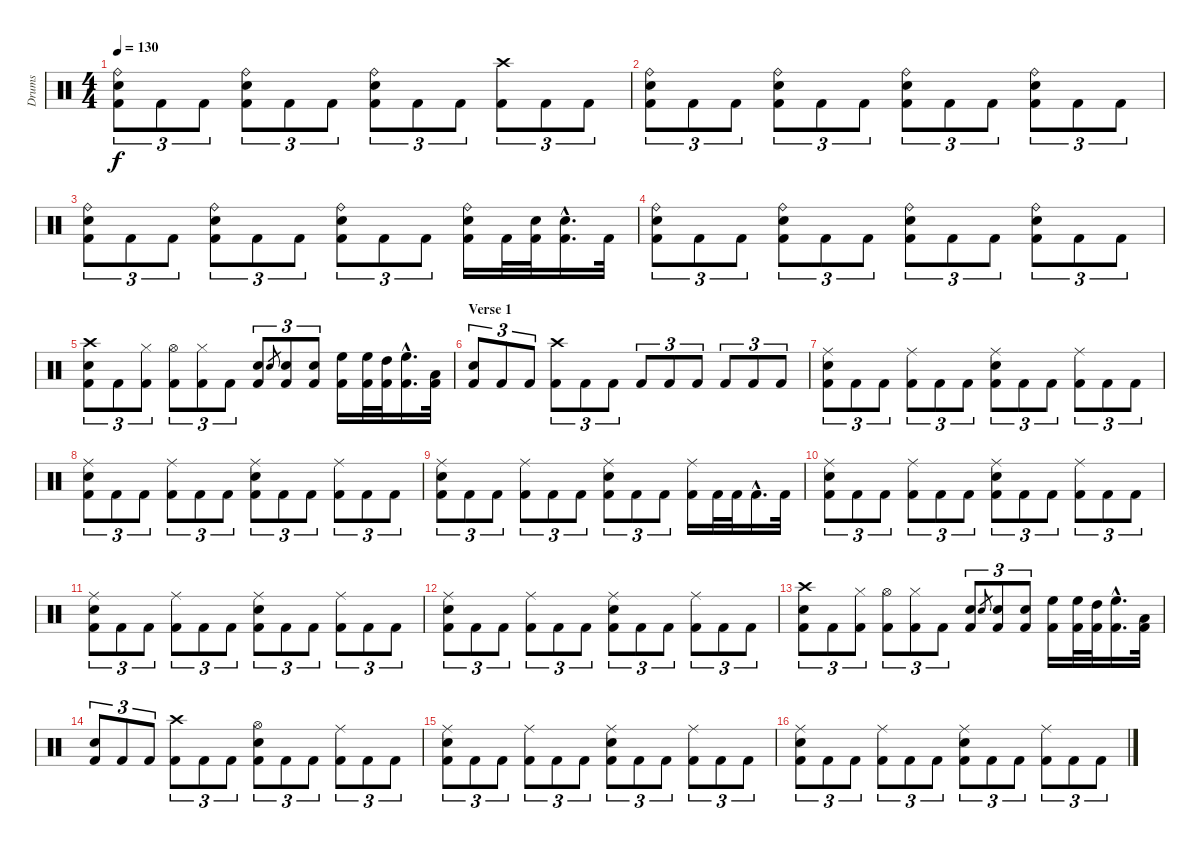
\track ("Drums" "Drums") {instrument percussion}
\staff {score}
\articulation defaults
\ts (4 4)
\tempo 130
\clef neutral
\ks c
("Ride (bell)" "Snare (hit) 2" "Kick (hit) 2").8{tu (3 2) dy f} "Kick (hit) 2".8{tu (3 2)} "Kick (hit) 2".8{tu (3 2)} ("Ride (bell)" "Snare (hit) 2" "Kick (hit) 2").8{tu (3 2)} "Kick (hit) 2".8{tu (3 2)} "Kick (hit) 2".8{tu (3 2)} ("Ride (bell)" "Snare (hit) 2" "Kick (hit) 2").8{tu (3 2)} "Kick (hit) 2".8{tu (3 2)} "Kick (hit) 2".8{tu (3 2)} ("Crash high (hit)" "Kick (hit) 2").8{tu (3 2)} "Kick (hit) 2".8{tu (3 2)} "Kick (hit) 2".8{tu (3 2)} |
("Ride (bell)" "Snare (hit) 2" "Kick (hit) 2").8{tu (3 2)} "Kick (hit) 2".8{tu (3 2)} "Kick (hit) 2".8{tu (3 2)} ("Ride (bell)" "Snare (hit) 2" "Kick (hit) 2").8{tu (3 2)} "Kick (hit) 2".8{tu (3 2)} "Kick (hit) 2".8{tu (3 2)} ("Ride (bell)" "Snare (hit) 2" "Kick (hit) 2").8{tu (3 2)} "Kick (hit) 2".8{tu (3 2)} "Kick (hit) 2".8{tu (3 2)} ("Ride (bell)" "Snare (hit) 2" "Kick (hit) 2").8{tu (3 2)} "Kick (hit) 2".8{tu (3 2)} "Kick (hit) 2".8{tu (3 2)} |
("Ride (bell)" "Snare (hit) 2" "Kick (hit) 2").8{tu (3 2)} "Kick (hit) 2".8{tu (3 2)} "Kick (hit) 2".8{tu (3 2)} ("Ride (bell)" "Snare (hit) 2" "Kick (hit) 2").8{tu (3 2)} "Kick (hit) 2".8{tu (3 2)} "Kick (hit) 2".8{tu (3 2)} ("Ride (bell)" "Snare (hit) 2" "Kick (hit) 2").8{tu (3 2)} "Kick (hit) 2".8{tu (3 2)} "Kick (hit) 2".8{tu (3 2)} ("Ride (bell)" "Snare (hit) 2" "Kick (hit) 2").16 "Kick (hit) 2".32 ("Snare (hit) 2" "Kick (hit) 2").32 ("Snare (hit) 2"{hac} "Kick (hit) 2"{hac}).16{d} "Kick (hit) 2".32 |
("Ride (bell)" "Snare (hit) 2" "Kick (hit) 2").8{tu (3 2)} "Kick (hit) 2".8{tu (3 2)} "Kick (hit) 2".8{tu (3 2)} ("Ride (bell)" "Snare (hit) 2" "Kick (hit) 2").8{tu (3 2)} "Kick (hit) 2".8{tu (3 2)} "Kick (hit) 2".8{tu (3 2)} ("Ride (bell)" "Snare (hit) 2" "Kick (hit) 2").8{tu (3 2)} "Kick (hit) 2".8{tu (3 2)} "Kick (hit) 2".8{tu (3 2)} ("Ride (bell)" "Snare (hit) 2" "Kick (hit) 2").8{tu (3 2)} "Kick (hit) 2".8{tu (3 2)} "Kick (hit) 2".8{tu (3 2)} |
("Crash high (hit)" "Snare (hit) 2" "Kick (hit) 2").8{tu (3 2)} "Kick (hit) 2".8{tu (3 2)} ("Hi-Hat (closed)" "Kick (hit) 2").8{tu (3 2)} ("Hi-Hat (open)" "Kick (hit) 2").8{tu (3 2)} ("Hi-Hat (closed)" "Kick (hit) 2").8{tu (3 2)} "Kick (hit) 2".8{tu (3 2)} ("Snare (hit) 2" "Kick (hit) 2").8{tu (3 2)} "Snare (hit) 2".8{gr} ("Snare (hit) 2" "Kick (hit) 2").8{tu (3 2)} ("Snare (hit) 2" "Kick (hit) 2").8{tu (3 2)} ("High Floor Tom (hit)" "Kick (hit) 2").16 ("High Floor Tom (hit)" "Kick (hit) 2").32 ("High Tom (hit)" "Kick (hit) 2").32 ("High Floor Tom (hit)"{hac} "Kick (hit) 2"{hac}).16{d} ("Low Tom (hit)" "Kick (hit) 2").32 |
\section ("" "Verse 1")
("Snare (hit) 2" "Kick (hit) 2").8{tu (3 2)} "Kick (hit) 2".8{tu (3 2)} "Kick (hit) 2".8{tu (3 2)} ("Crash high (hit)" "Kick (hit) 2").8{tu (3 2)} "Kick (hit) 2".8{tu (3 2)} "Kick (hit) 2".8{tu (3 2)} "Kick (hit) 2".8{tu (3 2)} "Kick (hit) 2".8{tu (3 2)} "Kick (hit) 2".8{tu (3 2)} "Kick (hit) 2".8{tu (3 2)} "Kick (hit) 2".8{tu (3 2)} "Kick (hit) 2".8{tu (3 2)} |
("Ride (middle)" "Snare (hit) 2" "Kick (hit) 2").8{tu (3 2)} "Kick (hit) 2".8{tu (3 2)} "Kick (hit) 2".8{tu (3 2)} ("Ride (middle)" "Kick (hit) 2").8{tu (3 2)} "Kick (hit) 2".8{tu (3 2)} "Kick (hit) 2".8{tu (3 2)} ("Ride (middle)" "Snare (hit) 2" "Kick (hit) 2").8{tu (3 2)} "Kick (hit) 2".8{tu (3 2)} "Kick (hit) 2".8{tu (3 2)} ("Ride (middle)" "Kick (hit) 2").8{tu (3 2)} "Kick (hit) 2".8{tu (3 2)} "Kick (hit) 2".8{tu (3 2)} |
("Ride (middle)" "Snare (hit) 2" "Kick (hit) 2").8{tu (3 2)} "Kick (hit) 2".8{tu (3 2)} "Kick (hit) 2".8{tu (3 2)} ("Ride (middle)" "Kick (hit) 2").8{tu (3 2)} "Kick (hit) 2".8{tu (3 2)} "Kick (hit) 2".8{tu (3 2)} ("Ride (middle)" "Snare (hit) 2" "Kick (hit) 2").8{tu (3 2)} "Kick (hit) 2".8{tu (3 2)} "Kick (hit) 2".8{tu (3 2)} ("Ride (middle)" "Kick (hit) 2").8{tu (3 2)} "Kick (hit) 2".8{tu (3 2)} "Kick (hit) 2".8{tu (3 2)} |
("Ride (middle)" "Snare (hit) 2" "Kick (hit) 2").8{tu (3 2)} "Kick (hit) 2".8{tu (3 2)} "Kick (hit) 2".8{tu (3 2)} ("Ride (middle)" "Kick (hit) 2").8{tu (3 2)} "Kick (hit) 2".8{tu (3 2)} "Kick (hit) 2".8{tu (3 2)} ("Ride (middle)" "Snare (hit) 2" "Kick (hit) 2").8{tu (3 2)} "Kick (hit) 2".8{tu (3 2)} "Kick (hit) 2".8{tu (3 2)} ("Ride (middle)" "Kick (hit) 2").16 "Kick (hit) 2".32 "Kick (hit) 2".32 "Kick (hit) 2"{hac}.16{d} "Kick (hit) 2".32 |
("Ride (middle)" "Snare (hit) 2" "Kick (hit) 2").8{tu (3 2)} "Kick (hit) 2".8{tu (3 2)} "Kick (hit) 2".8{tu (3 2)} ("Ride (middle)" "Kick (hit) 2").8{tu (3 2)} "Kick (hit) 2".8{tu (3 2)} "Kick (hit) 2".8{tu (3 2)} ("Ride (middle)" "Snare (hit) 2" "Kick (hit) 2").8{tu (3 2)} "Kick (hit) 2".8{tu (3 2)} "Kick (hit) 2".8{tu (3 2)} ("Ride (middle)" "Kick (hit) 2").8{tu (3 2)} "Kick (hit) 2".8{tu (3 2)} "Kick (hit) 2".8{tu (3 2)} |
("Ride (middle)" "Snare (hit) 2" "Kick (hit) 2").8{tu (3 2)} "Kick (hit) 2".8{tu (3 2)} "Kick (hit) 2".8{tu (3 2)} ("Ride (middle)" "Kick (hit) 2").8{tu (3 2)} "Kick (hit) 2".8{tu (3 2)} "Kick (hit) 2".8{tu (3 2)} ("Ride (middle)" "Snare (hit) 2" "Kick (hit) 2").8{tu (3 2)} "Kick (hit) 2".8{tu (3 2)} "Kick (hit) 2".8{tu (3 2)} ("Ride (middle)" "Kick (hit) 2").8{tu (3 2)} "Kick (hit) 2".8{tu (3 2)} "Kick (hit) 2".8{tu (3 2)} |
("Ride (middle)" "Snare (hit) 2" "Kick (hit) 2").8{tu (3 2)} "Kick (hit) 2".8{tu (3 2)} "Kick (hit) 2".8{tu (3 2)} ("Ride (middle)" "Kick (hit) 2").8{tu (3 2)} "Kick (hit) 2".8{tu (3 2)} "Kick (hit) 2".8{tu (3 2)} ("Ride (middle)" "Snare (hit) 2" "Kick (hit) 2").8{tu (3 2)} "Kick (hit) 2".8{tu (3 2)} "Kick (hit) 2".8{tu (3 2)} ("Ride (middle)" "Kick (hit) 2").8{tu (3 2)} "Kick (hit) 2".8{tu (3 2)} "Kick (hit) 2".8{tu (3 2)} |
("Crash high (hit)" "Snare (hit) 2" "Kick (hit) 2").8{tu (3 2)} "Kick (hit) 2".8{tu (3 2)} ("Hi-Hat (closed)" "Kick (hit) 2").8{tu (3 2)} ("Hi-Hat (open)" "Kick (hit) 2").8{tu (3 2)} ("Hi-Hat (closed)" "Kick (hit) 2").8{tu (3 2)} "Kick (hit) 2".8{tu (3 2)} ("Snare (hit) 2" "Kick (hit) 2").8{tu (3 2)} "Snare (hit) 2".8{gr} ("Snare (hit) 2" "Kick (hit) 2").8{tu (3 2)} ("Snare (hit) 2" "Kick (hit) 2").8{tu (3 2)} ("High Floor Tom (hit)" "Kick (hit) 2").16 ("High Floor Tom (hit)" "Kick (hit) 2").32 ("High Tom (hit)" "Kick (hit) 2").32 ("High Floor Tom (hit)"{hac} "Kick (hit) 2"{hac}).16{d} ("Low Tom (hit)" "Kick (hit) 2").32 |
("Snare (hit) 2" "Kick (hit) 2").8{tu (3 2)} "Kick (hit) 2".8{tu (3 2)} "Kick (hit) 2".8{tu (3 2)} ("Crash high (hit)" "Kick (hit) 2").8{tu (3 2)} "Kick (hit) 2".8{tu (3 2)} "Kick (hit) 2".8{tu (3 2)} ("Hi-Hat (open)" "Snare (hit) 2" "Kick (hit) 2").8{tu (3 2)} "Kick (hit) 2".8{tu (3 2)} "Kick (hit) 2".8{tu (3 2)} ("Ride (middle)" "Kick (hit) 2").8{tu (3 2)} "Kick (hit) 2".8{tu (3 2)} "Kick (hit) 2".8{tu (3 2)} |
("Ride (middle)" "Snare (hit) 2" "Kick (hit) 2").8{tu (3 2)} "Kick (hit) 2".8{tu (3 2)} "Kick (hit) 2".8{tu (3 2)} ("Ride (middle)" "Kick (hit) 2").8{tu (3 2)} "Kick (hit) 2".8{tu (3 2)} "Kick (hit) 2".8{tu (3 2)} ("Ride (middle)" "Snare (hit) 2" "Kick (hit) 2").8{tu (3 2)} "Kick (hit) 2".8{tu (3 2)} "Kick (hit) 2".8{tu (3 2)} ("Ride (middle)" "Kick (hit) 2").8{tu (3 2)} "Kick (hit) 2".8{tu (3 2)} "Kick (hit) 2".8{tu (3 2)} |
("Ride (middle)" "Snare (hit) 2" "Kick (hit) 2").8{tu (3 2)} "Kick (hit) 2".8{tu (3 2)} "Kick (hit) 2".8{tu (3 2)} ("Ride (middle)" "Kick (hit) 2").8{tu (3 2)} "Kick (hit) 2".8{tu (3 2)} "Kick (hit) 2".8{tu (3 2)} ("Ride (middle)" "Snare (hit) 2" "Kick (hit) 2").8{tu (3 2)} "Kick (hit) 2".8{tu (3 2)} "Kick (hit) 2".8{tu (3 2)} ("Ride (middle)" "Kick (hit) 2").8{tu (3 2)} "Kick (hit) 2".8{tu (3 2)} "Kick (hit) 2".8{tu (3 2)}
